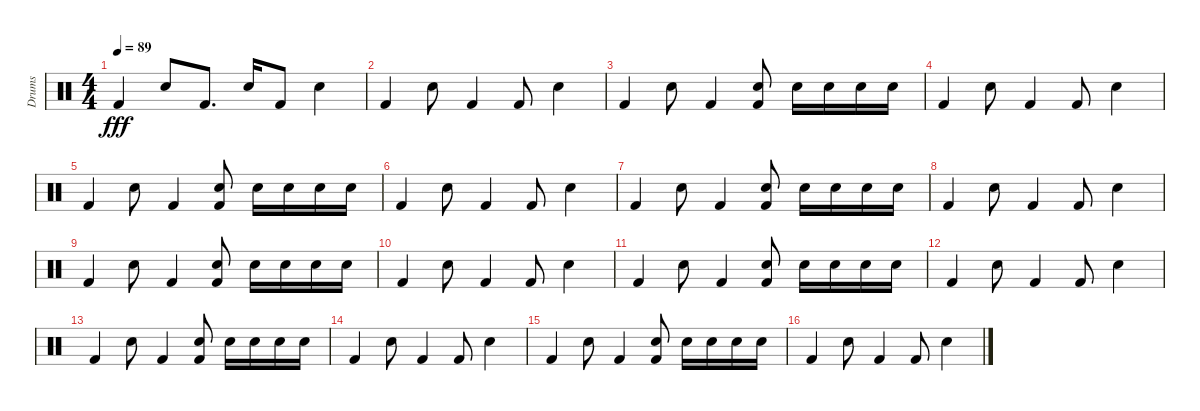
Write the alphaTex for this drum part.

\track ("Drums" "Drums") {instrument percussion}
\staff {score}
\articulation defaults
\ts (4 4)
\tempo 89
\clef neutral
\ks c "Kick (hit) 2".4{dy fff} "Electric Snare (hit)".8 "Kick (hit) 2".8{d} "Electric Snare (hit)".16 "Kick (hit) 2".8 "Electric Snare (hit)".4
|
"Kick (hit) 2".4 "Electric Snare (hit)".8 "Kick (hit) 2".4 "Kick (hit) 2".8 "Electric Snare (hit)".4 |
"Kick (hit) 2".4 "Electric Snare (hit)".8 "Kick (hit) 2".4 ("Electric Snare (hit)" "Kick (hit) 2").8 "Electric Snare (hit)".16 "Electric Snare (hit)".16 "Electric Snare (hit)".16 "Electric Snare (hit)".16 |
"Kick (hit) 2".4 "Electric Snare (hit)".8 "Kick (hit) 2".4 "Kick (hit) 2".8 "Electric Snare (hit)".4 |
"Kick (hit) 2".4 "Electric Snare (hit)".8 "Kick (hit) 2".4 ("Electric Snare (hit)" "Kick (hit) 2").8 "Electric Snare (hit)".16 "Electric Snare (hit)".16 "Electric Snare (hit)".16 "Electric Snare (hit)".16 |
"Kick (hit) 2".4 "Electric Snare (hit)".8 "Kick (hit) 2".4 "Kick (hit) 2".8 "Electric Snare (hit)".4 |
"Kick (hit) 2".4 "Electric Snare (hit)".8 "Kick (hit) 2".4 ("Electric Snare (hit)" "Kick (hit) 2").8 "Electric Snare (hit)".16 "Electric Snare (hit)".16 "Electric Snare (hit)".16 "Electric Snare (hit)".16 |
"Kick (hit) 2".4 "Electric Snare (hit)".8 "Kick (hit) 2".4 "Kick (hit) 2".8 "Electric Snare (hit)".4 |
"Kick (hit) 2".4 "Electric Snare (hit)".8 "Kick (hit) 2".4 ("Electric Snare (hit)" "Kick (hit) 2").8 "Electric Snare (hit)".16 "Electric Snare (hit)".16 "Electric Snare (hit)".16 "Electric Snare (hit)".16 |
"Kick (hit) 2".4 "Electric Snare (hit)".8 "Kick (hit) 2".4 "Kick (hit) 2".8 "Electric Snare (hit)".4 |
"Kick (hit) 2".4 "Electric Snare (hit)".8 "Kick (hit) 2".4 ("Electric Snare (hit)" "Kick (hit) 2").8 "Electric Snare (hit)".16 "Electric Snare (hit)".16 "Electric Snare (hit)".16 "Electric Snare (hit)".16 |
"Kick (hit) 2".4 "Electric Snare (hit)".8 "Kick (hit) 2".4 "Kick (hit) 2".8 "Electric Snare (hit)".4 |
"Kick (hit) 2".4 "Electric Snare (hit)".8 "Kick (hit) 2".4 ("Electric Snare (hit)" "Kick (hit) 2").8 "Electric Snare (hit)".16 "Electric Snare (hit)".16 "Electric Snare (hit)".16 "Electric Snare (hit)".16 |
"Kick (hit) 2".4 "Electric Snare (hit)".8 "Kick (hit) 2".4 "Kick (hit) 2".8 "Electric Snare (hit)".4 |
"Kick (hit) 2".4 "Electric Snare (hit)".8 "Kick (hit) 2".4 ("Electric Snare (hit)" "Kick (hit) 2").8 "Electric Snare (hit)".16 "Electric Snare (hit)".16 "Electric Snare (hit)".16 "Electric Snare (hit)".16 |
"Kick (hit) 2".4 "Electric Snare (hit)".8 "Kick (hit) 2".4 "Kick (hit) 2".8 "Electric Snare (hit)".4
